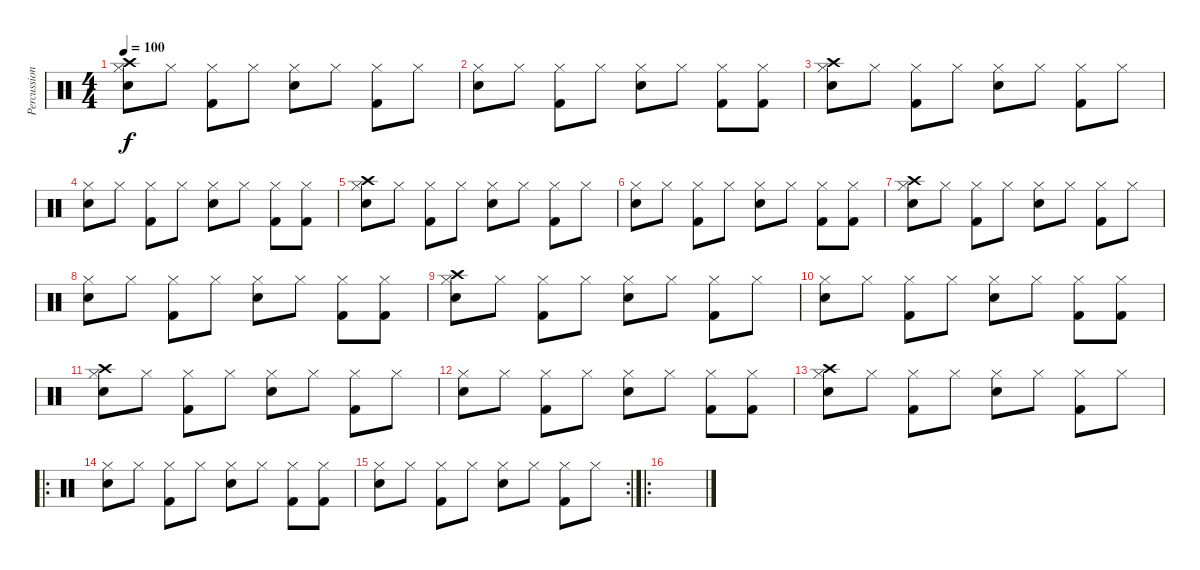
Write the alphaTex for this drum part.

\track ("Percussions" "Percussion") {instrument percussion}
\staff {score}
\articulation defaults
\ts (4 4)
\tempo 100
\clef neutral
\ks c
("Crash high (hit)" "Hi-Hat (closed)" "Electric Snare (hit)").8{dy f} "Hi-Hat (closed)".8 ("Hi-Hat (closed)" "Kick (hit) 2").8 "Hi-Hat (closed)".8 ("Hi-Hat (closed)" "Electric Snare (hit)").8 "Hi-Hat (closed)".8 ("Hi-Hat (closed)" "Kick (hit) 2").8 "Hi-Hat (closed)".8 |
("Hi-Hat (closed)" "Electric Snare (hit)").8 "Hi-Hat (closed)".8 ("Hi-Hat (closed)" "Kick (hit) 2").8 "Hi-Hat (closed)".8 ("Hi-Hat (closed)" "Electric Snare (hit)").8 "Hi-Hat (closed)".8 ("Hi-Hat (closed)" "Kick (hit) 2").8 ("Hi-Hat (closed)" "Kick (hit) 2").8 |
("Crash high (hit)" "Hi-Hat (closed)" "Electric Snare (hit)").8 "Hi-Hat (closed)".8 ("Hi-Hat (closed)" "Kick (hit) 2").8 "Hi-Hat (closed)".8 ("Hi-Hat (closed)" "Electric Snare (hit)").8 "Hi-Hat (closed)".8 ("Hi-Hat (closed)" "Kick (hit) 2").8 "Hi-Hat (closed)".8 |
("Hi-Hat (closed)" "Electric Snare (hit)").8 "Hi-Hat (closed)".8 ("Hi-Hat (closed)" "Kick (hit) 2").8 "Hi-Hat (closed)".8 ("Hi-Hat (closed)" "Electric Snare (hit)").8 "Hi-Hat (closed)".8 ("Hi-Hat (closed)" "Kick (hit) 2").8 ("Hi-Hat (closed)" "Kick (hit) 2").8 |
("Crash high (hit)" "Hi-Hat (closed)" "Electric Snare (hit)").8 "Hi-Hat (closed)".8 ("Hi-Hat (closed)" "Kick (hit) 2").8 "Hi-Hat (closed)".8 ("Hi-Hat (closed)" "Electric Snare (hit)").8 "Hi-Hat (closed)".8 ("Hi-Hat (closed)" "Kick (hit) 2").8 "Hi-Hat (closed)".8 |
("Hi-Hat (closed)" "Electric Snare (hit)").8 "Hi-Hat (closed)".8 ("Hi-Hat (closed)" "Kick (hit) 2").8 "Hi-Hat (closed)".8 ("Hi-Hat (closed)" "Electric Snare (hit)").8 "Hi-Hat (closed)".8 ("Hi-Hat (closed)" "Kick (hit) 2").8 ("Hi-Hat (closed)" "Kick (hit) 2").8 |
("Crash high (hit)" "Hi-Hat (closed)" "Electric Snare (hit)").8 "Hi-Hat (closed)".8 ("Hi-Hat (closed)" "Kick (hit) 2").8 "Hi-Hat (closed)".8 ("Hi-Hat (closed)" "Electric Snare (hit)").8 "Hi-Hat (closed)".8 ("Hi-Hat (closed)" "Kick (hit) 2").8 "Hi-Hat (closed)".8 |
("Hi-Hat (closed)" "Electric Snare (hit)").8 "Hi-Hat (closed)".8 ("Hi-Hat (closed)" "Kick (hit) 2").8 "Hi-Hat (closed)".8 ("Hi-Hat (closed)" "Electric Snare (hit)").8 "Hi-Hat (closed)".8 ("Hi-Hat (closed)" "Kick (hit) 2").8 ("Hi-Hat (closed)" "Kick (hit) 2").8 |
("Crash high (hit)" "Hi-Hat (closed)" "Electric Snare (hit)").8 "Hi-Hat (closed)".8 ("Hi-Hat (closed)" "Kick (hit) 2").8 "Hi-Hat (closed)".8 ("Hi-Hat (closed)" "Electric Snare (hit)").8 "Hi-Hat (closed)".8 ("Hi-Hat (closed)" "Kick (hit) 2").8 "Hi-Hat (closed)".8 |
("Hi-Hat (closed)" "Electric Snare (hit)").8 "Hi-Hat (closed)".8 ("Hi-Hat (closed)" "Kick (hit) 2").8 "Hi-Hat (closed)".8 ("Hi-Hat (closed)" "Electric Snare (hit)").8 "Hi-Hat (closed)".8 ("Hi-Hat (closed)" "Kick (hit) 2").8 ("Hi-Hat (closed)" "Kick (hit) 2").8 |
("Crash high (hit)" "Hi-Hat (closed)" "Electric Snare (hit)").8 "Hi-Hat (closed)".8 ("Hi-Hat (closed)" "Kick (hit) 2").8 "Hi-Hat (closed)".8 ("Hi-Hat (closed)" "Electric Snare (hit)").8 "Hi-Hat (closed)".8 ("Hi-Hat (closed)" "Kick (hit) 2").8 "Hi-Hat (closed)".8 |
("Hi-Hat (closed)" "Electric Snare (hit)").8 "Hi-Hat (closed)".8 ("Hi-Hat (closed)" "Kick (hit) 2").8 "Hi-Hat (closed)".8 ("Hi-Hat (closed)" "Electric Snare (hit)").8 "Hi-Hat (closed)".8 ("Hi-Hat (closed)" "Kick (hit) 2").8 ("Hi-Hat (closed)" "Kick (hit) 2").8 |
("Crash high (hit)" "Hi-Hat (closed)" "Electric Snare (hit)").8 "Hi-Hat (closed)".8 ("Hi-Hat (closed)" "Kick (hit) 2").8 "Hi-Hat (closed)".8 ("Hi-Hat (closed)" "Electric Snare (hit)").8 "Hi-Hat (closed)".8 ("Hi-Hat (closed)" "Kick (hit) 2").8 "Hi-Hat (closed)".8 |
\ro
("Hi-Hat (closed)" "Electric Snare (hit)").8 "Hi-Hat (closed)".8 ("Hi-Hat (closed)" "Kick (hit) 2").8 "Hi-Hat (closed)".8 ("Hi-Hat (closed)" "Electric Snare (hit)").8 "Hi-Hat (closed)".8 ("Hi-Hat (closed)" "Kick (hit) 2").8 ("Hi-Hat (closed)" "Kick (hit) 2").8 |
\rc 2
("Hi-Hat (closed)" "Electric Snare (hit)").8 "Hi-Hat (closed)".8 ("Hi-Hat (closed)" "Kick (hit) 2").8 "Hi-Hat (closed)".8 ("Hi-Hat (closed)" "Electric Snare (hit)").8 "Hi-Hat (closed)".8 ("Hi-Hat (closed)" "Kick (hit) 2").8 "Hi-Hat (closed)".8 |
\ro
